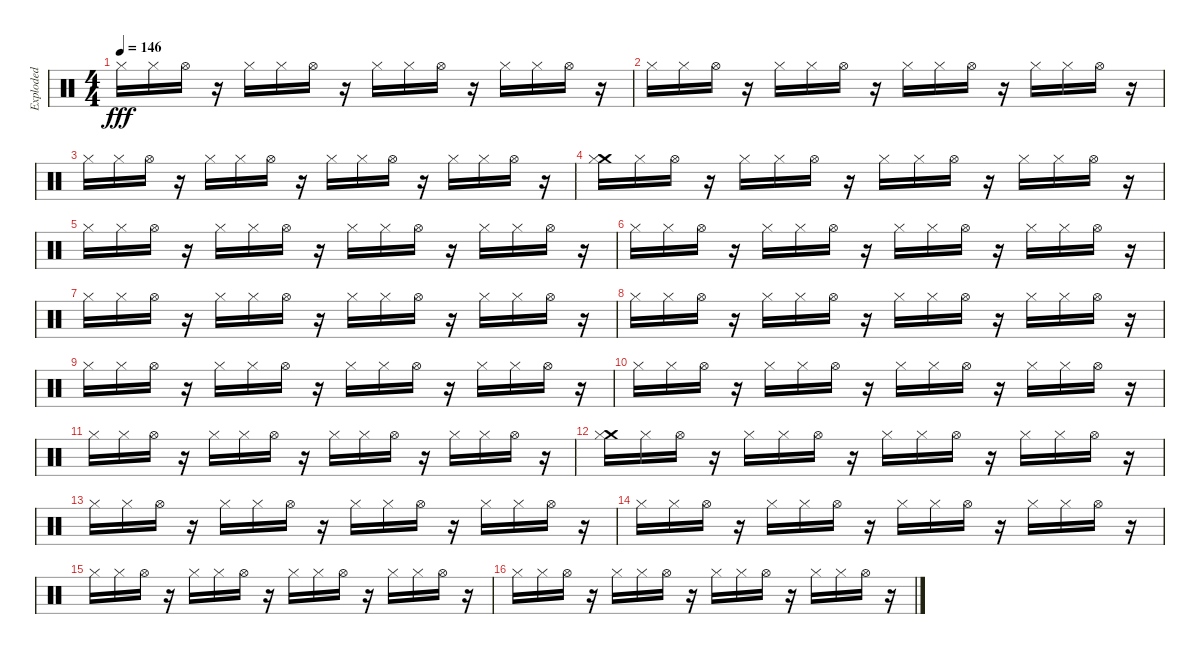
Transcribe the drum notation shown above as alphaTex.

\track ("Exploded" "Exploded") {instrument percussion}
\staff {score}
\articulation defaults
\ts (4 4)
\tempo 146
\clef neutral
\ks c "Hi-Hat (closed)".16{dy fff} "Hi-Hat (closed)".16 "Hi-Hat (open)".16
r.16 "Hi-Hat (closed)".16 "Hi-Hat (closed)".16 "Hi-Hat (open)".16 r.16 "Hi-Hat (closed)".16 "Hi-Hat (closed)".16 "Hi-Hat (open)".16 r.16 "Hi-Hat (closed)".16 "Hi-Hat (closed)".16 "Hi-Hat (open)".16 r.16 |
"Hi-Hat (closed)".16 "Hi-Hat (closed)".16 "Hi-Hat (open)".16 r.16 "Hi-Hat (closed)".16 "Hi-Hat (closed)".16 "Hi-Hat (open)".16 r.16 "Hi-Hat (closed)".16 "Hi-Hat (closed)".16 "Hi-Hat (open)".16 r.16 "Hi-Hat (closed)".16 "Hi-Hat (closed)".16 "Hi-Hat (open)".16 r.16 |
"Hi-Hat (closed)".16 "Hi-Hat (closed)".16 "Hi-Hat (open)".16 r.16 "Hi-Hat (closed)".16 "Hi-Hat (closed)".16 "Hi-Hat (open)".16 r.16 "Hi-Hat (closed)".16 "Hi-Hat (closed)".16 "Hi-Hat (open)".16 r.16 "Hi-Hat (closed)".16 "Hi-Hat (closed)".16 "Hi-Hat (open)".16 r.16 |
("Crash medium (hit)" "Hi-Hat (closed)").16 "Hi-Hat (closed)".16 "Hi-Hat (open)".16 r.16 "Hi-Hat (closed)".16 "Hi-Hat (closed)".16 "Hi-Hat (open)".16 r.16 "Hi-Hat (closed)".16 "Hi-Hat (closed)".16 "Hi-Hat (open)".16 r.16 "Hi-Hat (closed)".16 "Hi-Hat (closed)".16 "Hi-Hat (open)".16 r.16 |
"Hi-Hat (closed)".16 "Hi-Hat (closed)".16 "Hi-Hat (open)".16 r.16 "Hi-Hat (closed)".16 "Hi-Hat (closed)".16 "Hi-Hat (open)".16 r.16 "Hi-Hat (closed)".16 "Hi-Hat (closed)".16 "Hi-Hat (open)".16 r.16 "Hi-Hat (closed)".16 "Hi-Hat (closed)".16 "Hi-Hat (open)".16 r.16 |
"Hi-Hat (closed)".16 "Hi-Hat (closed)".16 "Hi-Hat (open)".16 r.16 "Hi-Hat (closed)".16 "Hi-Hat (closed)".16 "Hi-Hat (open)".16 r.16 "Hi-Hat (closed)".16 "Hi-Hat (closed)".16 "Hi-Hat (open)".16 r.16 "Hi-Hat (closed)".16 "Hi-Hat (closed)".16 "Hi-Hat (open)".16 r.16 |
"Hi-Hat (closed)".16 "Hi-Hat (closed)".16 "Hi-Hat (open)".16 r.16 "Hi-Hat (closed)".16 "Hi-Hat (closed)".16 "Hi-Hat (open)".16 r.16 "Hi-Hat (closed)".16 "Hi-Hat (closed)".16 "Hi-Hat (open)".16 r.16 "Hi-Hat (closed)".16 "Hi-Hat (closed)".16 "Hi-Hat (open)".16 r.16 |
"Hi-Hat (closed)".16 "Hi-Hat (closed)".16 "Hi-Hat (open)".16 r.16 "Hi-Hat (closed)".16 "Hi-Hat (closed)".16 "Hi-Hat (open)".16 r.16 "Hi-Hat (closed)".16 "Hi-Hat (closed)".16 "Hi-Hat (open)".16 r.16 "Hi-Hat (closed)".16 "Hi-Hat (closed)".16 "Hi-Hat (open)".16 r.16 |
"Hi-Hat (closed)".16 "Hi-Hat (closed)".16 "Hi-Hat (open)".16 r.16 "Hi-Hat (closed)".16 "Hi-Hat (closed)".16 "Hi-Hat (open)".16 r.16 "Hi-Hat (closed)".16 "Hi-Hat (closed)".16 "Hi-Hat (open)".16 r.16 "Hi-Hat (closed)".16 "Hi-Hat (closed)".16 "Hi-Hat (open)".16 r.16 |
"Hi-Hat (closed)".16 "Hi-Hat (closed)".16 "Hi-Hat (open)".16 r.16 "Hi-Hat (closed)".16 "Hi-Hat (closed)".16 "Hi-Hat (open)".16 r.16 "Hi-Hat (closed)".16 "Hi-Hat (closed)".16 "Hi-Hat (open)".16 r.16 "Hi-Hat (closed)".16 "Hi-Hat (closed)".16 "Hi-Hat (open)".16 r.16 |
"Hi-Hat (closed)".16 "Hi-Hat (closed)".16 "Hi-Hat (open)".16 r.16 "Hi-Hat (closed)".16 "Hi-Hat (closed)".16 "Hi-Hat (open)".16 r.16 "Hi-Hat (closed)".16 "Hi-Hat (closed)".16 "Hi-Hat (open)".16 r.16 "Hi-Hat (closed)".16 "Hi-Hat (closed)".16 "Hi-Hat (open)".16 r.16 |
("Crash medium (hit)" "Hi-Hat (closed)").16 "Hi-Hat (closed)".16 "Hi-Hat (open)".16 r.16 "Hi-Hat (closed)".16 "Hi-Hat (closed)".16 "Hi-Hat (open)".16 r.16 "Hi-Hat (closed)".16 "Hi-Hat (closed)".16 "Hi-Hat (open)".16 r.16 "Hi-Hat (closed)".16 "Hi-Hat (closed)".16 "Hi-Hat (open)".16 r.16 |
"Hi-Hat (closed)".16 "Hi-Hat (closed)".16 "Hi-Hat (open)".16 r.16 "Hi-Hat (closed)".16 "Hi-Hat (closed)".16 "Hi-Hat (open)".16 r.16 "Hi-Hat (closed)".16 "Hi-Hat (closed)".16 "Hi-Hat (open)".16 r.16 "Hi-Hat (closed)".16 "Hi-Hat (closed)".16 "Hi-Hat (open)".16 r.16 |
"Hi-Hat (closed)".16 "Hi-Hat (closed)".16 "Hi-Hat (open)".16 r.16 "Hi-Hat (closed)".16 "Hi-Hat (closed)".16 "Hi-Hat (open)".16 r.16 "Hi-Hat (closed)".16 "Hi-Hat (closed)".16 "Hi-Hat (open)".16 r.16 "Hi-Hat (closed)".16 "Hi-Hat (closed)".16 "Hi-Hat (open)".16 r.16 |
"Hi-Hat (closed)".16 "Hi-Hat (closed)".16 "Hi-Hat (open)".16 r.16 "Hi-Hat (closed)".16 "Hi-Hat (closed)".16 "Hi-Hat (open)".16 r.16 "Hi-Hat (closed)".16 "Hi-Hat (closed)".16 "Hi-Hat (open)".16 r.16 "Hi-Hat (closed)".16 "Hi-Hat (closed)".16 "Hi-Hat (open)".16 r.16 |
"Hi-Hat (closed)".16 "Hi-Hat (closed)".16 "Hi-Hat (open)".16 r.16 "Hi-Hat (closed)".16 "Hi-Hat (closed)".16 "Hi-Hat (open)".16 r.16 "Hi-Hat (closed)".16 "Hi-Hat (closed)".16 "Hi-Hat (open)".16 r.16 "Hi-Hat (closed)".16 "Hi-Hat (closed)".16 "Hi-Hat (open)".16 r.16
